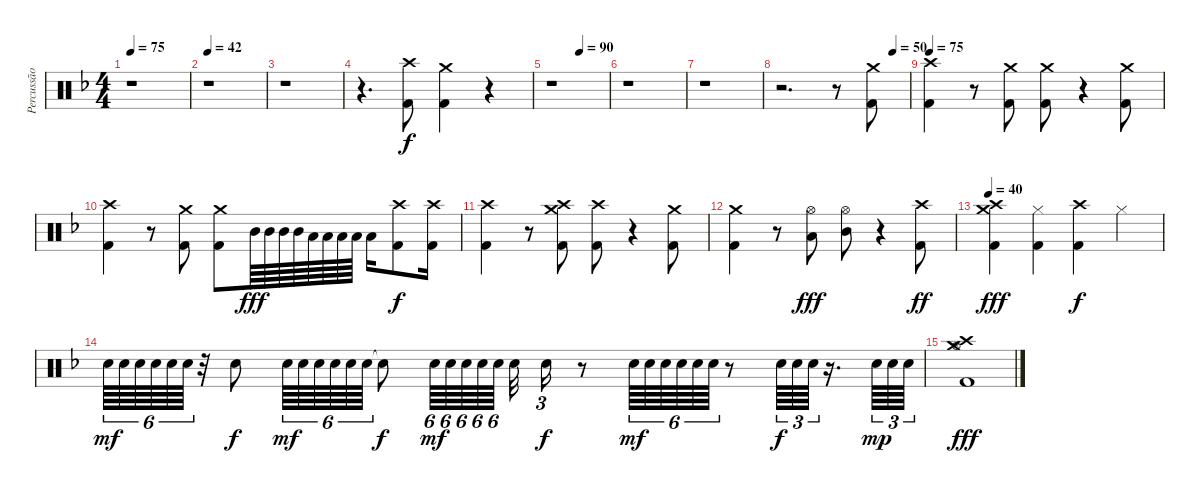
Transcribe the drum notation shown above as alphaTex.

\track ("Percussão" "Percussão") {instrument percussion}
\staff {score}
\articulation defaults
\ts (4 4)
\tempo 75
\clef neutral
\ks dminor
r.1{dy fff} |
\tempo 42
r.1 |
r.1 |
r.4{d} ("Crash high (hit)" "Kick (hit) 2").8{dy f} ("Crash medium (hit)" "Kick (hit) 2").4 r.4 |
\tempo (90 0.5)
r.1 |
r.1 |
r.1 |
\tempo (50 0.875)
r.2{d} r.8 ("Kick (hit) 2" "Crash medium (hit)").8 |
\tempo 75
("Kick (hit) 2" "Crash high (hit)").4 r.8 ("Crash medium (hit)" "Kick (hit) 2").8 ("Crash medium (hit)" "Kick (hit) 2").8 r.4 ("Kick (hit) 2" "Crash medium (hit)").8 |
("Kick (hit) 2" "Crash high (hit)").4 r.8 ("Kick (hit) 2" "Crash medium (hit)").8 ("Kick (hit) 2" "Crash medium (hit)").8 "Mid Tom (hit)".64{dy fff} "Mid Tom (hit)".64 "Mid Tom (hit)".64 "Mid Tom (hit)".64 "Low Tom (hit)".64 "Low Tom (hit)".64 "Low Tom (hit)".64 "Low Tom (hit)".64 "Low Tom (hit)".16 ("Kick (hit) 2" "Crash high (hit)").8{dy f} ("Crash high (hit)" "Kick (hit) 2").16 |
("Kick (hit) 2" "Crash high (hit)").4 r.8 ("Crash medium (hit)" "Kick (hit) 2" "Crash high (hit)").8 ("Kick (hit) 2" "Crash high (hit)").8 r.4 ("Kick (hit) 2" "Crash medium (hit)").8 |
("Kick (hit) 2" "Crash medium (hit)").4 r.8 ("Low Tom (hit)" "Hi-Hat (open)").8{dy fff} ("Mid Tom (hit)" "Hi-Hat (open)").8 r.4 ("Crash high (hit)" "Kick (hit) 2").8{dy ff} |
\tempo 40
("Crash medium (hit)" "Crash high (hit)" "Kick (hit) 2").4{dy fff} ("Hi-Hat (closed)" "Kick (hit) 2").4 ("Crash high (hit)" "Kick (hit) 2").4{dy f} "Hi-Hat (closed)".4 |
"Snare (hit) 2".64{tu (6 4) dy mf} "Snare (hit) 2".64{tu (6 4)} "Snare (hit) 2".64{tu (6 4)} "Snare (hit) 2".64{tu (6 4)} "Snare (hit) 2".64{tu (6 4)} "Snare (hit) 2".64{tu (6 4)} r.32 "Snare (hit) 2".8{dy f} "Snare (hit) 2".64{tu (6 4) dy mf} "Snare (hit) 2".64{tu (6 4)} "Snare (hit) 2".64{tu (6 4)} "Snare (hit) 2".64{tu (6 4)} "Snare (hit) 2".64{tu (6 4)} "Snare (hit) 2".64{tu (6 4)} "Snare (hit)"{t}.8{dy f} "Snare (hit) 2".64{tu (6 4) dy mf} "Snare (hit) 2".64{tu (6 4)} "Snare (hit) 2".64{tu (6 4)} "Snare (hit) 2".64{tu (6 4)} "Snare (hit) 2".64{tu (6 4)} "Snare (hit) 2".32 "Snare (hit) 2".16{tu (3 2) dy f} r.8 "Snare (hit) 2".64{tu (6 4) dy mf} "Snare (hit) 2".64{tu (6 4)} "Snare (hit) 2".64{tu (6 4)} "Snare (hit) 2".64{tu (6 4)} "Snare (hit) 2".64{tu (6 4)} "Snare (hit) 2".64{tu (6 4)} r.8 "Snare (hit) 2".64{tu (3 2) dy f} "Snare (hit) 2".64{tu (3 2)} "Snare (hit) 2".64{tu (3 2)} r.16{d} "Snare (hit) 2".64{tu (3 2) dy mp} "Snare (hit) 2".64{tu (3 2)} "Snare (hit) 2".64{tu (3 2)} |
("Kick (hit) 2" "Crash high (hit)" "Hi-Hat (open)" "Crash medium (hit)").1{dy fff}
